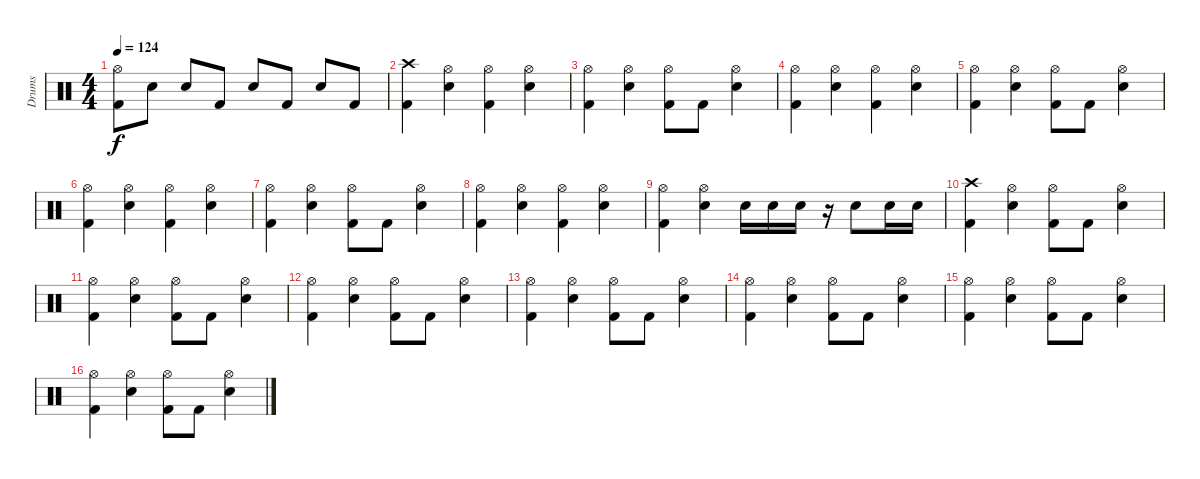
\track ("Drums" "Drums") {instrument percussion}
\staff {score}
\articulation defaults
\ts (4 4)
\tempo 124
\clef neutral
\ks c
("Hi-Hat (open)" "Kick (hit) 2").8{dy f} "Snare (hit) 2".8 "Snare (hit) 2".8 "Kick (hit) 2".8 "Snare (hit) 2".8 "Kick (hit) 2".8 "Snare (hit) 2".8 "Kick (hit) 2".8 |
("Crash high (hit)" "Kick (hit) 2").4 ("Hi-Hat (open)" "Snare (hit) 2").4 ("Hi-Hat (open)" "Kick (hit) 2").4 ("Hi-Hat (open)" "Snare (hit) 2").4 |
("Hi-Hat (open)" "Kick (hit) 2").4 ("Hi-Hat (open)" "Snare (hit) 2").4 ("Hi-Hat (open)" "Kick (hit) 2").8 "Kick (hit) 2".8 ("Hi-Hat (open)" "Snare (hit) 2").4 |
("Hi-Hat (open)" "Kick (hit) 2").4 ("Hi-Hat (open)" "Snare (hit) 2").4 ("Hi-Hat (open)" "Kick (hit) 2").4 ("Hi-Hat (open)" "Snare (hit) 2").4 |
("Hi-Hat (open)" "Kick (hit) 2").4 ("Hi-Hat (open)" "Snare (hit) 2").4 ("Hi-Hat (open)" "Kick (hit) 2").8 "Kick (hit) 2".8 ("Hi-Hat (open)" "Snare (hit) 2").4 |
("Hi-Hat (open)" "Kick (hit) 2").4 ("Hi-Hat (open)" "Snare (hit) 2").4 ("Hi-Hat (open)" "Kick (hit) 2").4 ("Hi-Hat (open)" "Snare (hit) 2").4 |
("Hi-Hat (open)" "Kick (hit) 2").4 ("Hi-Hat (open)" "Snare (hit) 2").4 ("Hi-Hat (open)" "Kick (hit) 2").8 "Kick (hit) 2".8 ("Hi-Hat (open)" "Snare (hit) 2").4 |
("Hi-Hat (open)" "Kick (hit) 2").4 ("Hi-Hat (open)" "Snare (hit) 2").4 ("Hi-Hat (open)" "Kick (hit) 2").4 ("Hi-Hat (open)" "Snare (hit) 2").4 |
("Hi-Hat (open)" "Kick (hit) 2").4 ("Hi-Hat (open)" "Snare (hit) 2").4 "Snare (hit) 2".16 "Snare (hit) 2".16 "Snare (hit) 2".16 r.16 "Snare (hit) 2".8 "Snare (hit) 2".16 "Snare (hit) 2".16 |
("Crash high (hit)" "Kick (hit) 2").4{volume 12} ("Hi-Hat (open)" "Snare (hit) 2").4 ("Hi-Hat (open)" "Kick (hit) 2").8 "Kick (hit) 2".8 ("Hi-Hat (open)" "Snare (hit) 2").4 |
("Hi-Hat (open)" "Kick (hit) 2").4{volume 11} ("Hi-Hat (open)" "Snare (hit) 2").4 ("Hi-Hat (open)" "Kick (hit) 2").8 "Kick (hit) 2".8 ("Hi-Hat (open)" "Snare (hit) 2").4 |
("Hi-Hat (open)" "Kick (hit) 2").4{volume 10} ("Hi-Hat (open)" "Snare (hit) 2").4 ("Hi-Hat (open)" "Kick (hit) 2").8 "Kick (hit) 2".8 ("Hi-Hat (open)" "Snare (hit) 2").4 |
("Hi-Hat (open)" "Kick (hit) 2").4{volume 9} ("Hi-Hat (open)" "Snare (hit) 2").4 ("Hi-Hat (open)" "Kick (hit) 2").8 "Kick (hit) 2".8 ("Hi-Hat (open)" "Snare (hit) 2").4 |
("Hi-Hat (open)" "Kick (hit) 2").4{volume 7} ("Hi-Hat (open)" "Snare (hit) 2").4 ("Hi-Hat (open)" "Kick (hit) 2").8 "Kick (hit) 2".8 ("Hi-Hat (open)" "Snare (hit) 2").4 |
("Hi-Hat (open)" "Kick (hit) 2").4{volume 6} ("Hi-Hat (open)" "Snare (hit) 2").4 ("Hi-Hat (open)" "Kick (hit) 2").8 "Kick (hit) 2".8 ("Hi-Hat (open)" "Snare (hit) 2").4 |
("Hi-Hat (open)" "Kick (hit) 2").4{volume 5} ("Hi-Hat (open)" "Snare (hit) 2").4 ("Hi-Hat (open)" "Kick (hit) 2").8 "Kick (hit) 2".8 ("Hi-Hat (open)" "Snare (hit) 2").4
